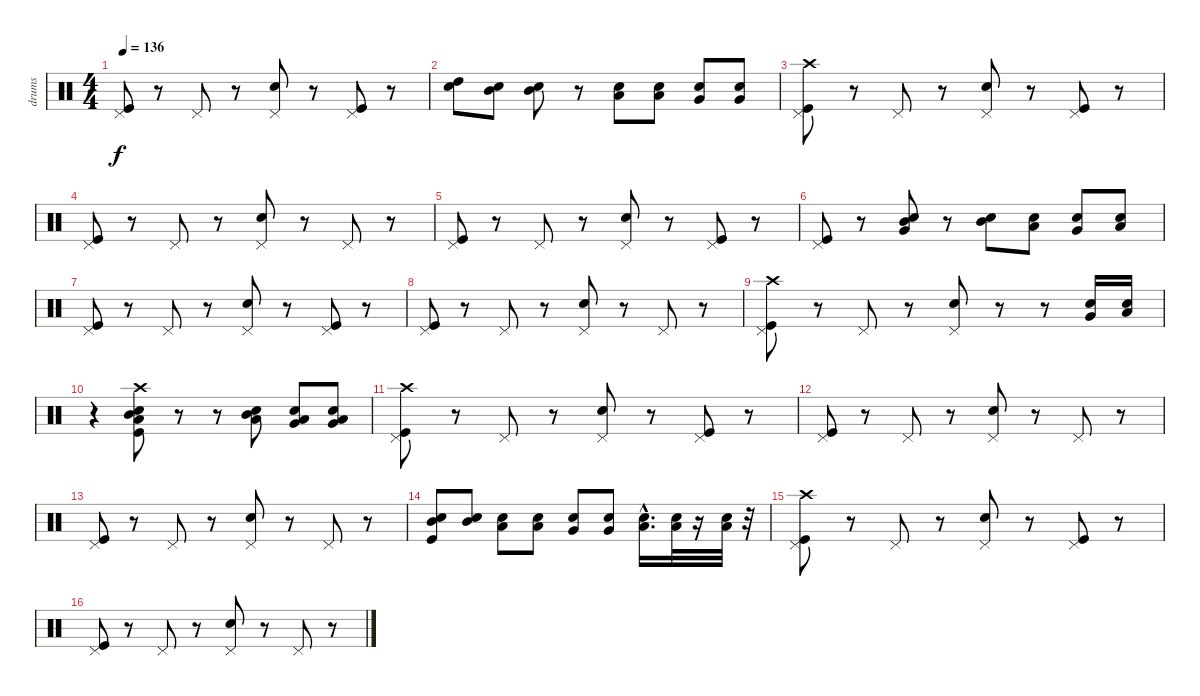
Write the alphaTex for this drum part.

\track ("drums" "drums") {instrument percussion}
\staff {score}
\articulation defaults
\ts (4 4)
\tempo 136
\clef neutral
\ks c
("Kick (hit)" "Pedal Hi-Hat (hit)").8{dy f} r.8 "Pedal Hi-Hat (hit)".8 r.8 ("Snare (hit) 2" "Pedal Hi-Hat (hit)").8 r.8 ("Kick (hit)" "Pedal Hi-Hat (hit)").8 r.8 |
("Snare (hit) 2" "High Tom (hit)").8 ("Snare (hit) 2" "Mid Tom (hit)").8 ("Snare (hit) 2" "Mid Tom (hit)").8 r.8 ("Snare (hit) 2" "Low Tom (hit)").8 ("Low Tom (hit)" "Snare (hit) 2").8 ("Snare (hit) 2" "Very Low Tom (hit)").8 ("Snare (hit) 2" "Very Low Tom (hit)").8 |
("Kick (hit)" "Crash high (hit)" "Pedal Hi-Hat (hit)").8 r.8 "Pedal Hi-Hat (hit)".8 r.8 ("Snare (hit) 2" "Pedal Hi-Hat (hit)").8 r.8 ("Kick (hit)" "Pedal Hi-Hat (hit)").8 r.8 |
("Kick (hit)" "Pedal Hi-Hat (hit)").8 r.8 "Pedal Hi-Hat (hit)".8 r.8 ("Snare (hit) 2" "Pedal Hi-Hat (hit)").8 r.8 "Pedal Hi-Hat (hit)".8 r.8 |
("Kick (hit)" "Pedal Hi-Hat (hit)").8 r.8 "Pedal Hi-Hat (hit)".8 r.8 ("Snare (hit) 2" "Pedal Hi-Hat (hit)").8 r.8 ("Kick (hit)" "Pedal Hi-Hat (hit)").8 r.8 |
("Kick (hit)" "Pedal Hi-Hat (hit)").8 r.8 ("Snare (hit) 2" "Mid Tom (hit)" "Very Low Tom (hit)").8 r.8 ("Snare (hit) 2" "Mid Tom (hit)").8 ("Low Tom (hit)" "Snare (hit) 2").8 ("Snare (hit) 2" "Very Low Tom (hit)").8 ("Snare (hit) 2" "Low Floor Tom (hit)").8 |
("Kick (hit)" "Pedal Hi-Hat (hit)").8 r.8 "Pedal Hi-Hat (hit)".8 r.8 ("Snare (hit) 2" "Pedal Hi-Hat (hit)").8 r.8 ("Kick (hit)" "Pedal Hi-Hat (hit)").8 r.8 |
("Kick (hit)" "Pedal Hi-Hat (hit)").8 r.8 "Pedal Hi-Hat (hit)".8 r.8 ("Snare (hit) 2" "Pedal Hi-Hat (hit)").8 r.8 "Pedal Hi-Hat (hit)".8 r.8 |
("Kick (hit)" "Crash high (hit)" "Pedal Hi-Hat (hit)").8 r.8 "Pedal Hi-Hat (hit)".8 r.8 ("Snare (hit) 2" "Pedal Hi-Hat (hit)").8 r.8 r.8 ("Snare (hit) 2" "Very Low Tom (hit)").16 ("Snare (hit) 2" "Low Floor Tom (hit)").16 |
r.4 ("Snare (hit) 2" "Kick (hit)" "Crash high (hit)" "Mid Tom (hit)" "Low Tom (hit)").8 r.8 r.8 ("Snare (hit) 2" "Mid Tom (hit)" "Low Tom (hit)").8 ("Snare (hit) 2" "Low Tom (hit)" "Very Low Tom (hit)").8 ("Snare (hit) 2" "Low Floor Tom (hit)" "Very Low Tom (hit)").8 |
("Kick (hit)" "Crash high (hit)" "Pedal Hi-Hat (hit)").8 r.8 "Pedal Hi-Hat (hit)".8 r.8 ("Snare (hit) 2" "Pedal Hi-Hat (hit)").8 r.8 ("Kick (hit)" "Pedal Hi-Hat (hit)").8 r.8 |
("Kick (hit)" "Pedal Hi-Hat (hit)").8 r.8 "Pedal Hi-Hat (hit)".8 r.8 ("Snare (hit) 2" "Pedal Hi-Hat (hit)").8 r.8 "Pedal Hi-Hat (hit)".8 r.8 |
("Kick (hit)" "Pedal Hi-Hat (hit)").8 r.8 "Pedal Hi-Hat (hit)".8 r.8 ("Snare (hit) 2" "Pedal Hi-Hat (hit)").8 r.8 "Pedal Hi-Hat (hit)".8 r.8 |
("Kick (hit)" "Snare (hit) 2" "Mid Tom (hit)").8 ("Snare (hit) 2" "Mid Tom (hit)").8 ("Snare (hit) 2" "Low Tom (hit)").8 ("Snare (hit) 2" "Low Tom (hit)").8 ("Snare (hit) 2" "Very Low Tom (hit)").8 ("Snare (hit) 2" "Very Low Tom (hit)").8 ("Low Floor Tom (hit)"{hac} "Snare (hit) 2"{hac}).16{d} ("Snare (hit) 2" "Low Floor Tom (hit)").32 r.16 ("Snare (hit) 2" "Low Floor Tom (hit)").32 r.32 |
("Kick (hit)" "Crash high (hit)" "Pedal Hi-Hat (hit)").8 r.8 "Pedal Hi-Hat (hit)".8 r.8 ("Snare (hit) 2" "Pedal Hi-Hat (hit)").8 r.8 ("Kick (hit)" "Pedal Hi-Hat (hit)").8 r.8 |
("Kick (hit)" "Pedal Hi-Hat (hit)").8 r.8 "Pedal Hi-Hat (hit)".8 r.8 ("Snare (hit) 2" "Pedal Hi-Hat (hit)").8 r.8 "Pedal Hi-Hat (hit)".8 r.8
